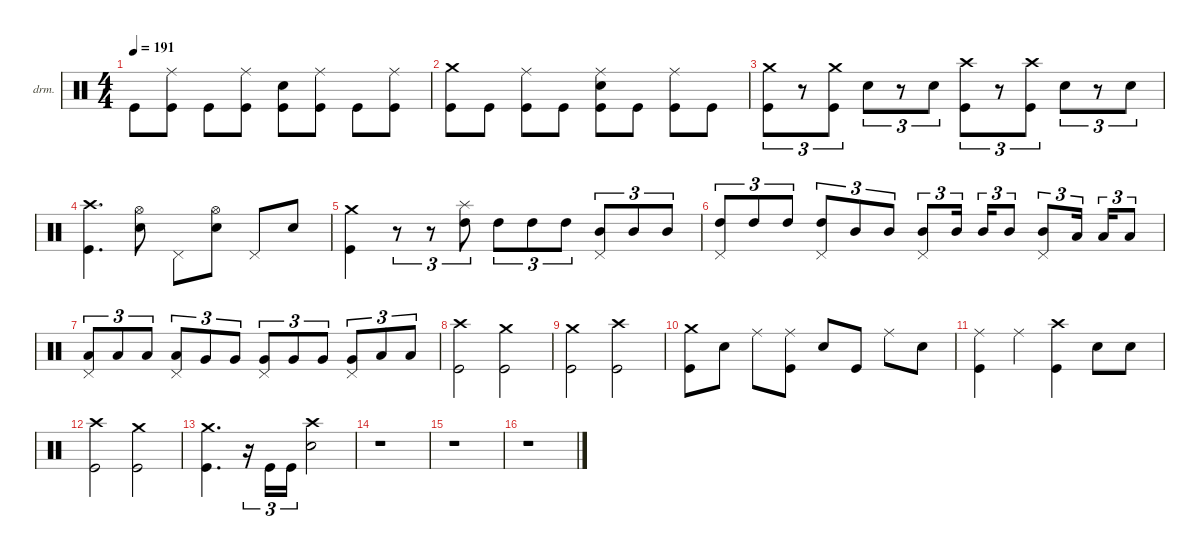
\defaultSystemsLayout 4
\hideDynamics
\bracketExtendMode nobrackets
\firstSystemTrackNameOrientation horizontal
\otherSystemsTrackNameOrientation horizontal
\track ("Drumkit" "drm.") {instrument percussion}
\staff {score}
\articulation defaults
\ts (4 4)
\tempo 191
\clef neutral
\ks c "Kick (hit)".8{dy f beam Down}
("Ride (middle)" "Kick (hit)").8{beam Down} "Kick (hit)".8{beam Down} ("Ride (middle)" "Kick (hit)").8{beam Down} ("Snare (hit) 2" "Kick (hit)").8{beam Down} ("Ride (middle)" "Kick (hit)").8{beam Down} "Kick (hit)".8{beam Down} ("Ride (middle)" "Kick (hit)").8{beam Down} |
("Crash medium (hit)" "Kick (hit)").8{beam Down} "Kick (hit)".8{beam Down} ("Ride (middle)" "Kick (hit)").8{dy mf beam Down} "Kick (hit)".8{dy f beam Down} ("Ride (middle)" "Snare (hit) 2" "Kick (hit)").8{dy mf beam Down} "Kick (hit)".8{dy f beam Down} ("Ride (middle)" "Kick (hit)").8{dy mf beam Down} "Kick (hit)".8{dy f beam Down} |
("Crash medium (hit)" "Kick (hit)").8{tu (3 2) dy mf beam Down} r.8{tu (3 2) beam Down} ("Crash medium (hit)" "Kick (hit)").8{tu (3 2) beam Down} "Snare (hit) 2".8{tu (3 2) beam Down} r.8{tu (3 2) beam Down} "Snare (hit) 2".8{tu (3 2) beam Down} ("Crash high (hit)" "Kick (hit)").8{tu (3 2) beam Down} r.8{tu (3 2) beam Down} ("Crash high (hit)" "Kick (hit)").8{tu (3 2) beam Down} "Snare (hit) 2".8{tu (3 2) beam Down} r.8{tu (3 2) beam Down} "Snare (hit) 2".8{tu (3 2) beam Down} |
("Crash high (hit)" "Kick (hit)").4{d beam Down} ("Hi-Hat (open)" "Snare (hit) 2").8{beam Down} "Pedal Hi-Hat (hit)".8{beam Down} ("Hi-Hat (open)" "Snare (hit) 2").8{beam Down} "Pedal Hi-Hat (hit)".8{beam Up} "Snare (hit) 2".8{beam Up} |
("Crash medium (hit)" "Kick (hit)").4{beam Down} r.8{tu (3 2) beam Down} r.8{tu (3 2) beam Down} ("Splash (hit)" "High Tom (hit)").8{tu (3 2) dy f beam Down} "High Tom (hit)".8{tu (3 2) dy mf beam Down} "High Tom (hit)".8{tu (3 2) beam Down} "High Tom (hit)".8{tu (3 2) beam Down} ("Pedal Hi-Hat (hit)" "Mid Tom (hit)").8{tu (3 2) beam Up} "Mid Tom (hit)".8{tu (3 2) beam Up} "Mid Tom (hit)".8{tu (3 2) beam Up} |
("Pedal Hi-Hat (hit)" "High Tom (hit)").8{tu (3 2) beam Up} "High Tom (hit)".8{tu (3 2) dy f beam Up} "High Tom (hit)".8{tu (3 2) beam Up} ("Pedal Hi-Hat (hit)" "High Tom (hit)").8{tu (3 2) dy mf beam Up} "Mid Tom (hit)".8{tu (3 2) dy f beam Up} "Mid Tom (hit)".8{tu (3 2) beam Up} ("Pedal Hi-Hat (hit)" "Mid Tom (hit)").8{tu (3 2) dy mf beam Up} "Mid Tom (hit)".16{tu (3 2) dy f beam Up} "Mid Tom (hit)".16{tu (3 2) beam Up} "Mid Tom (hit)".8{tu (3 2) beam Up} ("Pedal Hi-Hat (hit)" "Mid Tom (hit)").8{tu (3 2) dy mf beam Up} "Low Tom (hit)".16{tu (3 2) dy f beam Up} "Low Tom (hit)".16{tu (3 2) beam Up} "Low Tom (hit)".8{tu (3 2) beam Up} |
("Pedal Hi-Hat (hit)" "Low Tom (hit)").8{tu (3 2) dy mf beam Up} "Low Tom (hit)".8{tu (3 2) beam Up} "Low Tom (hit)".8{tu (3 2) dy f beam Up} ("Pedal Hi-Hat (hit)" "Low Tom (hit)").8{tu (3 2) dy mf beam Up} "Very Low Tom (hit)".8{tu (3 2) dy f beam Up} "Very Low Tom (hit)".8{tu (3 2) beam Up} ("Pedal Hi-Hat (hit)" "Very Low Tom (hit)").8{tu (3 2) dy mf beam Up} "Very Low Tom (hit)".8{tu (3 2) dy f beam Up} "Very Low Tom (hit)".8{tu (3 2) beam Up} ("Pedal Hi-Hat (hit)" "Very Low Tom (hit)").8{tu (3 2) dy mf beam Up} "Low Floor Tom (hit)".8{tu (3 2) dy f beam Up} "Low Floor Tom (hit)".8{tu (3 2) beam Up} |
("Kick (hit)" "Crash high (hit)").2{beam Down} ("Crash medium (hit)" "Kick (hit)").2{beam Down} |
("Kick (hit)" "Crash medium (hit)").2{beam Down} ("Crash high (hit)" "Kick (hit)").2{beam Down} |
("Kick (hit)" "Crash medium (hit)").8{beam Down} "Snare (hit) 2".8{dy mp beam Down} "Ride (middle)".8{dy f beam Down} ("Ride (middle)" "Kick (hit)").8{beam Down} "Snare (hit) 2".8{beam Up} "Kick (hit)".8{beam Up} "Ride (middle)".8{beam Down} "Snare (hit) 2".8{beam Down} |
("Kick (hit)" "Ride (middle)").4{beam Down} "Ride (middle)".4{beam Down} ("Kick (hit)" "Crash high (hit)").4{beam Down} "Snare (hit) 2".8{beam Down} "Snare (hit) 2".8{beam Down} |
("Kick (hit)" "Crash high (hit)").2{beam Down} ("Crash medium (hit)" "Kick (hit)").2{beam Down} |
("Kick (hit)" "Crash medium (hit)").4{d beam Down} r.16{tu (3 2) beam Down} "Kick (hit)".16{tu (3 2) beam Up} "Kick (hit)".16{tu (3 2) beam Up} ("Crash high (hit)" "Snare (hit) 2").2{beam Down} |
r.1{beam Down} |
r.1{beam Down} |
r.1{beam Down}
